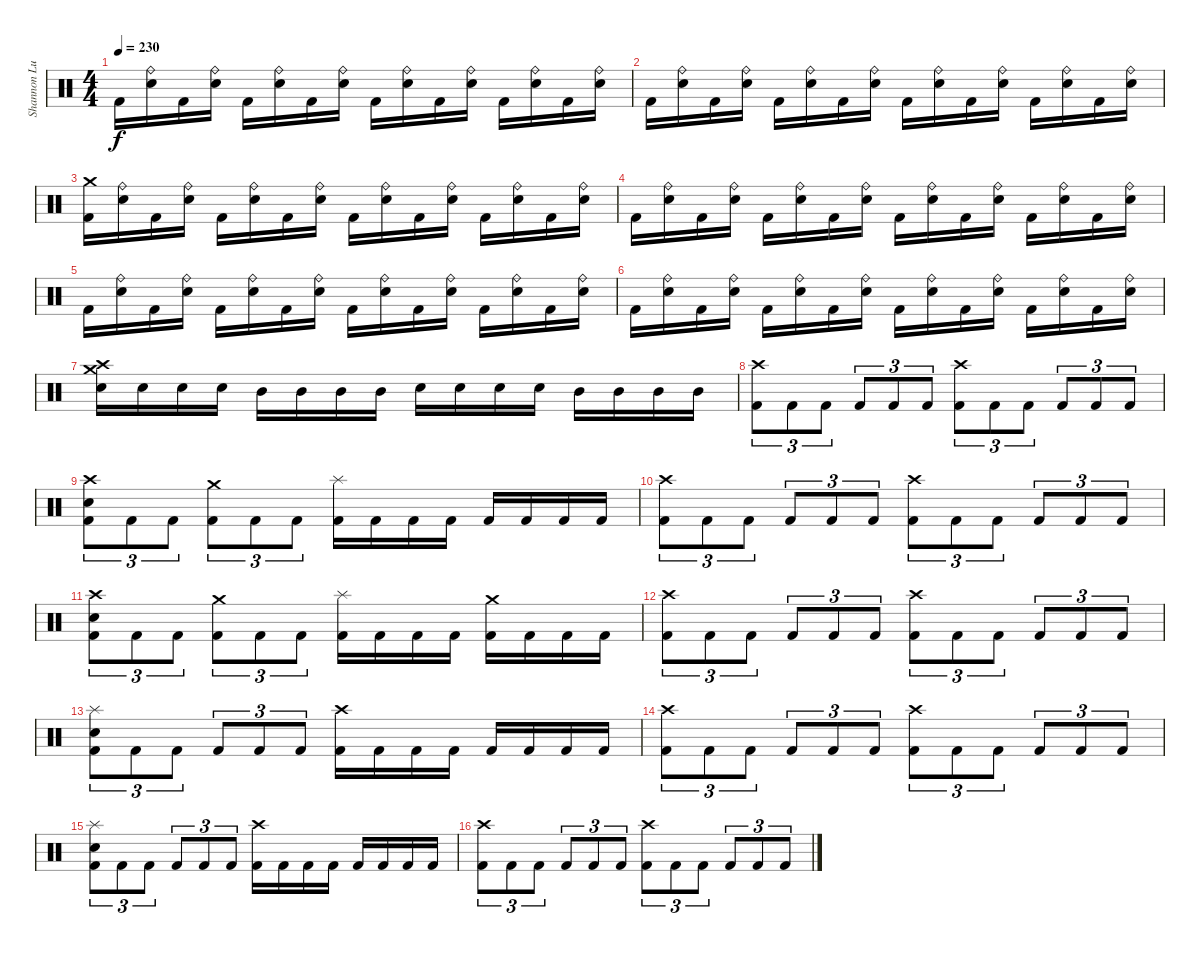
\track ("Shannon Lucas" "Shannon Lu") {instrument percussion}
\staff {score}
\articulation defaults
\ts (4 4)
\tempo 230
\clef neutral
\ks c "Kick (hit) 2".16{dy f}
("Ride (bell)" "Electric Snare (hit)").16 "Kick (hit) 2".16 ("Ride (bell)" "Electric Snare (hit)").16 "Kick (hit) 2".16 ("Ride (bell)" "Electric Snare (hit)").16 "Kick (hit) 2".16 ("Ride (bell)" "Electric Snare (hit)").16 "Kick (hit) 2".16 ("Ride (bell)" "Electric Snare (hit)").16 "Kick (hit) 2".16 ("Ride (bell)" "Electric Snare (hit)").16 "Kick (hit) 2".16 ("Ride (bell)" "Electric Snare (hit)").16 "Kick (hit) 2".16 ("Ride (bell)" "Electric Snare (hit)").16 |
"Kick (hit) 2".16 ("Ride (bell)" "Electric Snare (hit)").16 "Kick (hit) 2".16 ("Ride (bell)" "Electric Snare (hit)").16 "Kick (hit) 2".16 ("Ride (bell)" "Electric Snare (hit)").16 "Kick (hit) 2".16 ("Ride (bell)" "Electric Snare (hit)").16 "Kick (hit) 2".16 ("Ride (bell)" "Electric Snare (hit)").16 "Kick (hit) 2".16 ("Ride (bell)" "Electric Snare (hit)").16 "Kick (hit) 2".16 ("Ride (bell)" "Electric Snare (hit)").16 "Kick (hit) 2".16 ("Ride (bell)" "Electric Snare (hit)").16 |
("Crash medium (hit)" "Kick (hit) 2").16 ("Ride (bell)" "Electric Snare (hit)").16 "Kick (hit) 2".16 ("Ride (bell)" "Electric Snare (hit)").16 "Kick (hit) 2".16 ("Ride (bell)" "Electric Snare (hit)").16 "Kick (hit) 2".16 ("Ride (bell)" "Electric Snare (hit)").16 "Kick (hit) 2".16 ("Ride (bell)" "Electric Snare (hit)").16 "Kick (hit) 2".16 ("Ride (bell)" "Electric Snare (hit)").16 "Kick (hit) 2".16 ("Ride (bell)" "Electric Snare (hit)").16 "Kick (hit) 2".16 ("Ride (bell)" "Electric Snare (hit)").16 |
"Kick (hit) 2".16 ("Ride (bell)" "Electric Snare (hit)").16 "Kick (hit) 2".16 ("Ride (bell)" "Electric Snare (hit)").16 "Kick (hit) 2".16 ("Ride (bell)" "Electric Snare (hit)").16 "Kick (hit) 2".16 ("Ride (bell)" "Electric Snare (hit)").16 "Kick (hit) 2".16 ("Ride (bell)" "Electric Snare (hit)").16 "Kick (hit) 2".16 ("Ride (bell)" "Electric Snare (hit)").16 "Kick (hit) 2".16 ("Ride (bell)" "Electric Snare (hit)").16 "Kick (hit) 2".16 ("Ride (bell)" "Electric Snare (hit)").16 |
"Kick (hit) 2".16 ("Ride (bell)" "Electric Snare (hit)").16 "Kick (hit) 2".16 ("Ride (bell)" "Electric Snare (hit)").16 "Kick (hit) 2".16 ("Ride (bell)" "Electric Snare (hit)").16 "Kick (hit) 2".16 ("Ride (bell)" "Electric Snare (hit)").16 "Kick (hit) 2".16 ("Ride (bell)" "Electric Snare (hit)").16 "Kick (hit) 2".16 ("Ride (bell)" "Electric Snare (hit)").16 "Kick (hit) 2".16 ("Ride (bell)" "Electric Snare (hit)").16 "Kick (hit) 2".16 ("Ride (bell)" "Electric Snare (hit)").16 |
"Kick (hit) 2".16 ("Ride (bell)" "Electric Snare (hit)").16 "Kick (hit) 2".16 ("Ride (bell)" "Electric Snare (hit)").16 "Kick (hit) 2".16 ("Ride (bell)" "Electric Snare (hit)").16 "Kick (hit) 2".16 ("Ride (bell)" "Electric Snare (hit)").16 "Kick (hit) 2".16 ("Ride (bell)" "Electric Snare (hit)").16 "Kick (hit) 2".16 ("Ride (bell)" "Electric Snare (hit)").16 "Kick (hit) 2".16 ("Ride (bell)" "Electric Snare (hit)").16 "Kick (hit) 2".16 ("Ride (bell)" "Electric Snare (hit)").16 |
("Crash medium (hit)" "Crash high (hit)" "Electric Snare (hit)").16 "Electric Snare (hit)".16 "Electric Snare (hit)".16 "Electric Snare (hit)".16 "Mid Tom (hit)".16 "Mid Tom (hit)".16 "Mid Tom (hit)".16 "Mid Tom (hit)".16 "Electric Snare (hit)".16 "Electric Snare (hit)".16 "Electric Snare (hit)".16 "Electric Snare (hit)".16 "Mid Tom (hit)".16 "Mid Tom (hit)".16 "Mid Tom (hit)".16 "Mid Tom (hit)".16 |
("Crash high (hit)" "Kick (hit) 2").8{tu (3 2)} "Kick (hit) 2".8{tu (3 2)} "Kick (hit) 2".8{tu (3 2)} "Kick (hit) 2".8{tu (3 2)} "Kick (hit) 2".8{tu (3 2)} "Kick (hit) 2".8{tu (3 2)} ("Crash high (hit)" "Kick (hit) 2").8{tu (3 2)} "Kick (hit) 2".8{tu (3 2)} "Kick (hit) 2".8{tu (3 2)} "Kick (hit) 2".8{tu (3 2)} "Kick (hit) 2".8{tu (3 2)} "Kick (hit) 2".8{tu (3 2)} |
("Crash high (hit)" "Electric Snare (hit)" "Kick (hit) 2").8{tu (3 2)} "Kick (hit) 2".8{tu (3 2)} "Kick (hit) 2".8{tu (3 2)} ("Crash medium (hit)" "Kick (hit) 2").8{tu (3 2)} "Kick (hit) 2".8{tu (3 2)} "Kick (hit) 2".8{tu (3 2)} ("Splash (hit)" "Kick (hit) 2").16 "Kick (hit) 2".16 "Kick (hit) 2".16 "Kick (hit) 2".16 "Kick (hit) 2".16 "Kick (hit) 2".16 "Kick (hit) 2".16 "Kick (hit) 2".16 |
("Crash high (hit)" "Kick (hit) 2").8{tu (3 2)} "Kick (hit) 2".8{tu (3 2)} "Kick (hit) 2".8{tu (3 2)} "Kick (hit) 2".8{tu (3 2)} "Kick (hit) 2".8{tu (3 2)} "Kick (hit) 2".8{tu (3 2)} ("Crash high (hit)" "Kick (hit) 2").8{tu (3 2)} "Kick (hit) 2".8{tu (3 2)} "Kick (hit) 2".8{tu (3 2)} "Kick (hit) 2".8{tu (3 2)} "Kick (hit) 2".8{tu (3 2)} "Kick (hit) 2".8{tu (3 2)} |
("Crash high (hit)" "Electric Snare (hit)" "Kick (hit) 2").8{tu (3 2)} "Kick (hit) 2".8{tu (3 2)} "Kick (hit) 2".8{tu (3 2)} ("Crash medium (hit)" "Kick (hit) 2").8{tu (3 2)} "Kick (hit) 2".8{tu (3 2)} "Kick (hit) 2".8{tu (3 2)} ("Splash (hit)" "Kick (hit) 2").16 "Kick (hit) 2".16 "Kick (hit) 2".16 "Kick (hit) 2".16 ("Crash medium (hit)" "Kick (hit) 2").16 "Kick (hit) 2".16 "Kick (hit) 2".16 "Kick (hit) 2".16 |
("Crash high (hit)" "Kick (hit) 2").8{tu (3 2)} "Kick (hit) 2".8{tu (3 2)} "Kick (hit) 2".8{tu (3 2)} "Kick (hit) 2".8{tu (3 2)} "Kick (hit) 2".8{tu (3 2)} "Kick (hit) 2".8{tu (3 2)} ("Crash high (hit)" "Kick (hit) 2").8{tu (3 2)} "Kick (hit) 2".8{tu (3 2)} "Kick (hit) 2".8{tu (3 2)} "Kick (hit) 2".8{tu (3 2)} "Kick (hit) 2".8{tu (3 2)} "Kick (hit) 2".8{tu (3 2)} |
("Splash (hit)" "Electric Snare (hit)" "Kick (hit) 2").8{tu (3 2)} "Kick (hit) 2".8{tu (3 2)} "Kick (hit) 2".8{tu (3 2)} "Kick (hit) 2".8{tu (3 2)} "Kick (hit) 2".8{tu (3 2)} "Kick (hit) 2".8{tu (3 2)} ("Crash high (hit)" "Kick (hit) 2").16 "Kick (hit) 2".16 "Kick (hit) 2".16 "Kick (hit) 2".16 "Kick (hit) 2".16 "Kick (hit) 2".16 "Kick (hit) 2".16 "Kick (hit) 2".16 |
("Crash high (hit)" "Kick (hit) 2").8{tu (3 2)} "Kick (hit) 2".8{tu (3 2)} "Kick (hit) 2".8{tu (3 2)} "Kick (hit) 2".8{tu (3 2)} "Kick (hit) 2".8{tu (3 2)} "Kick (hit) 2".8{tu (3 2)} ("Crash high (hit)" "Kick (hit) 2").8{tu (3 2)} "Kick (hit) 2".8{tu (3 2)} "Kick (hit) 2".8{tu (3 2)} "Kick (hit) 2".8{tu (3 2)} "Kick (hit) 2".8{tu (3 2)} "Kick (hit) 2".8{tu (3 2)} |
("Splash (hit)" "Electric Snare (hit)" "Kick (hit) 2").8{tu (3 2)} "Kick (hit) 2".8{tu (3 2)} "Kick (hit) 2".8{tu (3 2)} "Kick (hit) 2".8{tu (3 2)} "Kick (hit) 2".8{tu (3 2)} "Kick (hit) 2".8{tu (3 2)} ("Crash high (hit)" "Kick (hit) 2").16 "Kick (hit) 2".16 "Kick (hit) 2".16 "Kick (hit) 2".16 "Kick (hit) 2".16 "Kick (hit) 2".16 "Kick (hit) 2".16 "Kick (hit) 2".16 |
("Crash high (hit)" "Kick (hit) 2").8{tu (3 2)} "Kick (hit) 2".8{tu (3 2)} "Kick (hit) 2".8{tu (3 2)} "Kick (hit) 2".8{tu (3 2)} "Kick (hit) 2".8{tu (3 2)} "Kick (hit) 2".8{tu (3 2)} ("Crash high (hit)" "Kick (hit) 2").8{tu (3 2)} "Kick (hit) 2".8{tu (3 2)} "Kick (hit) 2".8{tu (3 2)} "Kick (hit) 2".8{tu (3 2)} "Kick (hit) 2".8{tu (3 2)} "Kick (hit) 2".8{tu (3 2)}
